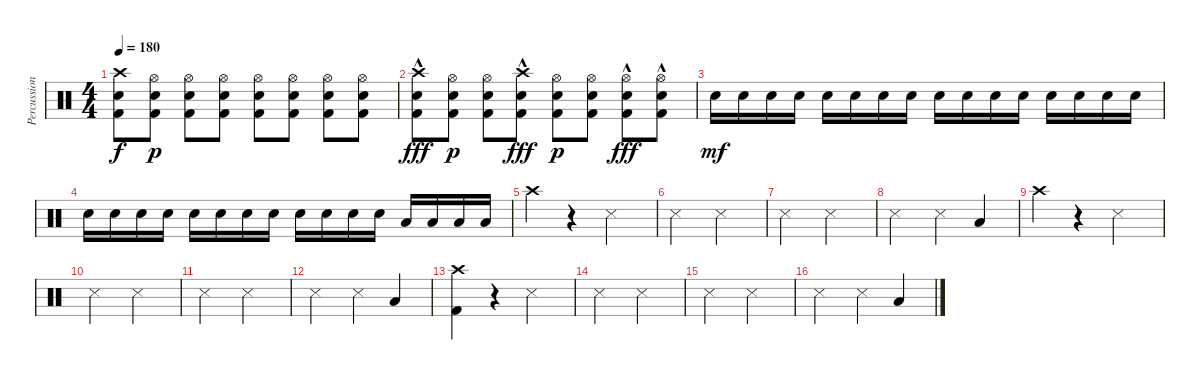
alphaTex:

\track ("Percussion" "Percussion") {instrument percussion}
\staff {score}
\articulation defaults
\ts (4 4)
\tempo 180
\clef neutral
\ks c
("Crash high (hit)" "Electric Snare (hit)" "Kick (hit) 2").8{dy f} ("Hi-Hat (open)" "Electric Snare (hit)" "Kick (hit) 2").8{dy p} ("Hi-Hat (open)" "Electric Snare (hit)" "Kick (hit) 2").8 ("Hi-Hat (open)" "Electric Snare (hit)" "Kick (hit) 2").8 ("Hi-Hat (open)" "Electric Snare (hit)" "Kick (hit) 2").8 ("Hi-Hat (open)" "Electric Snare (hit)" "Kick (hit) 2").8 ("Hi-Hat (open)" "Electric Snare (hit)" "Kick (hit) 2").8 ("Hi-Hat (open)" "Electric Snare (hit)" "Kick (hit) 2").8 |
("Crash high (hit)" "Electric Snare (hit)"{hac} "Kick (hit) 2").8{dy fff} ("Hi-Hat (open)" "Electric Snare (hit)" "Kick (hit) 2").8{dy p} ("Hi-Hat (open)" "Electric Snare (hit)" "Kick (hit) 2").8 ("Crash high (hit)" "Electric Snare (hit)"{hac} "Kick (hit) 2").8{dy fff} ("Hi-Hat (open)" "Electric Snare (hit)" "Kick (hit) 2").8{dy p} ("Hi-Hat (open)" "Electric Snare (hit)" "Kick (hit) 2").8 ("Hi-Hat (open)" "Electric Snare (hit)"{hac} "Kick (hit) 2").8{dy fff} ("Hi-Hat (open)" "Electric Snare (hit)"{hac} "Kick (hit) 2").8 |
"Electric Snare (hit)".16{dy mf} "Electric Snare (hit)".16 "Electric Snare (hit)".16 "Electric Snare (hit)".16 "Electric Snare (hit)".16 "Electric Snare (hit)".16 "Electric Snare (hit)".16 "Electric Snare (hit)".16 "Electric Snare (hit)".16 "Electric Snare (hit)".16 "Electric Snare (hit)".16 "Electric Snare (hit)".16 "Electric Snare (hit)".16 "Electric Snare (hit)".16 "Electric Snare (hit)".16 "Electric Snare (hit)".16 |
"Electric Snare (hit)".16 "Electric Snare (hit)".16 "Electric Snare (hit)".16 "Electric Snare (hit)".16 "Electric Snare (hit)".16 "Electric Snare (hit)".16 "Electric Snare (hit)".16 "Electric Snare (hit)".16 "Electric Snare (hit)".16 "Electric Snare (hit)".16 "Electric Snare (hit)".16 "Electric Snare (hit)".16 "Low Tom (hit)".16 "Low Tom (hit)".16 "Low Tom (hit)".16 "Low Tom (hit)".16 |
"Crash high (hit)".4 r.4 "Metronome (hit)".2 |
"Metronome (hit)".2 "Metronome (hit)".2 |
"Metronome (hit)".2 "Metronome (hit)".2 |
"Metronome (hit)".2 "Metronome (hit)".4 "Low Tom (hit)".4 |
"Crash high (hit)".4 r.4 "Metronome (hit)".2 |
"Metronome (hit)".2 "Metronome (hit)".2 |
"Metronome (hit)".2 "Metronome (hit)".2 |
"Metronome (hit)".2 "Metronome (hit)".4 "Low Tom (hit)".4 |
("Crash high (hit)" "Kick (hit) 2").4 r.4 "Metronome (hit)".2 |
"Metronome (hit)".2 "Metronome (hit)".2 |
"Metronome (hit)".2 "Metronome (hit)".2 |
"Metronome (hit)".2 "Metronome (hit)".4 "Low Tom (hit)".4
